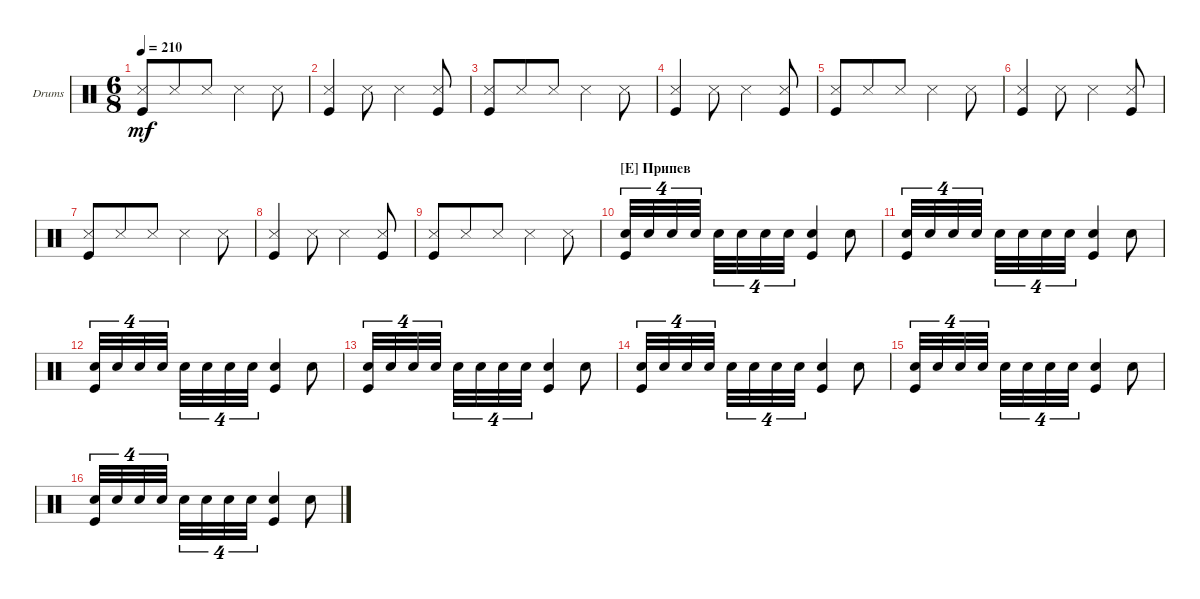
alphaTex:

\defaultSystemsLayout 4
\bracketExtendMode nobrackets
\firstSystemTrackNameOrientation horizontal
\otherSystemsTrackNameOrientation horizontal
\track ("Drumkit" "Drums") {instrument percussion}
\staff {score}
\articulation defaults
\ts (6 8)
\tempo 210
\clef neutral
\scale
0.333333
\ks c
("Kick (hit)" "Snare (side stick) 3").8{dy mf} "Snare (side stick) 3".8 "Snare (side stick) 3".8 "Snare (side stick) 3".4 "Snare (side stick) 3".8 |
\scale
0.333333 ("Kick (hit)" "Snare (side stick) 3").4 "Snare (side stick) 3".8 "Snare (side stick) 3".4 ("Kick (hit)" "Snare (side stick) 3").8 |
\scale
0.333333 ("Kick (hit)" "Snare (side stick) 3").8 "Snare (side stick) 3".8 "Snare (side stick) 3".8 "Snare (side stick) 3".4 "Snare (side stick) 3".8 |
\scale
0.333333 ("Kick (hit)" "Snare (side stick) 3").4 "Snare (side stick) 3".8 "Snare (side stick) 3".4 ("Kick (hit)" "Snare (side stick) 3").8 |
\scale
0.333333 ("Kick (hit)" "Snare (side stick) 3").8 "Snare (side stick) 3".8 "Snare (side stick) 3".8 "Snare (side stick) 3".4 "Snare (side stick) 3".8 |
\scale
0.333333 ("Kick (hit)" "Snare (side stick) 3").4 "Snare (side stick) 3".8 "Snare (side stick) 3".4 ("Kick (hit)" "Snare (side stick) 3").8 |
\scale
0.333333 ("Kick (hit)" "Snare (side stick) 3").8 "Snare (side stick) 3".8 "Snare (side stick) 3".8 "Snare (side stick) 3".4 "Snare (side stick) 3".8 |
\scale
0.333333 ("Kick (hit)" "Snare (side stick) 3").4 "Snare (side stick) 3".8 "Snare (side stick) 3".4 ("Kick (hit)" "Snare (side stick) 3").8 |
\scale
0.333333 ("Kick (hit)" "Snare (side stick) 3").8 "Snare (side stick) 3".8 "Snare (side stick) 3".8 "Snare (side stick) 3".4 "Snare (side stick) 3".8 |
\section ("E" "Припев")
\scale
0.333333 ("Kick (hit)" "Snare (hit) 2").32{tu (4 6)} "Snare (hit) 2".32{tu (4 6)} "Snare (hit) 2".32{tu (4 6)} "Snare (hit) 2".32{tu (4 6)} "Snare (hit) 2".32{tu (4 6)} "Snare (hit) 2".32{tu (4 6)} "Snare (hit) 2".32{tu (4 6)} "Snare (hit) 2".32{tu (4 6)} ("Kick (hit)" "Snare (hit) 2").4 "Snare (hit) 2".8 |
\scale
0.333333 ("Kick (hit)" "Snare (hit) 2").32{tu (4 6)} "Snare (hit) 2".32{tu (4 6)} "Snare (hit) 2".32{tu (4 6)} "Snare (hit) 2".32{tu (4 6)} "Snare (hit) 2".32{tu (4 6)} "Snare (hit) 2".32{tu (4 6)} "Snare (hit) 2".32{tu (4 6)} "Snare (hit) 2".32{tu (4 6)} ("Kick (hit)" "Snare (hit) 2").4 "Snare (hit) 2".8 |
\scale
0.333333 ("Kick (hit)" "Snare (hit) 2").32{tu (4 6)} "Snare (hit) 2".32{tu (4 6)} "Snare (hit) 2".32{tu (4 6)} "Snare (hit) 2".32{tu (4 6)} "Snare (hit) 2".32{tu (4 6)} "Snare (hit) 2".32{tu (4 6)} "Snare (hit) 2".32{tu (4 6)} "Snare (hit) 2".32{tu (4 6)} ("Kick (hit)" "Snare (hit) 2").4 "Snare (hit) 2".8 |
\scale
0.333333 ("Kick (hit)" "Snare (hit) 2").32{tu (4 6)} "Snare (hit) 2".32{tu (4 6)} "Snare (hit) 2".32{tu (4 6)} "Snare (hit) 2".32{tu (4 6)} "Snare (hit) 2".32{tu (4 6)} "Snare (hit) 2".32{tu (4 6)} "Snare (hit) 2".32{tu (4 6)} "Snare (hit) 2".32{tu (4 6)} ("Kick (hit)" "Snare (hit) 2").4 "Snare (hit) 2".8 |
\scale
0.333333 ("Kick (hit)" "Snare (hit) 2").32{tu (4 6)} "Snare (hit) 2".32{tu (4 6)} "Snare (hit) 2".32{tu (4 6)} "Snare (hit) 2".32{tu (4 6)} "Snare (hit) 2".32{tu (4 6)} "Snare (hit) 2".32{tu (4 6)} "Snare (hit) 2".32{tu (4 6)} "Snare (hit) 2".32{tu (4 6)} ("Kick (hit)" "Snare (hit) 2").4 "Snare (hit) 2".8 |
\scale
0.333333 ("Kick (hit)" "Snare (hit) 2").32{tu (4 6)} "Snare (hit) 2".32{tu (4 6)} "Snare (hit) 2".32{tu (4 6)} "Snare (hit) 2".32{tu (4 6)} "Snare (hit) 2".32{tu (4 6)} "Snare (hit) 2".32{tu (4 6)} "Snare (hit) 2".32{tu (4 6)} "Snare (hit) 2".32{tu (4 6)} ("Kick (hit)" "Snare (hit) 2").4 "Snare (hit) 2".8 |
\scale
0.333333 ("Kick (hit)" "Snare (hit) 2").32{tu (4 6)} "Snare (hit) 2".32{tu (4 6)} "Snare (hit) 2".32{tu (4 6)} "Snare (hit) 2".32{tu (4 6)} "Snare (hit) 2".32{tu (4 6)} "Snare (hit) 2".32{tu (4 6)} "Snare (hit) 2".32{tu (4 6)} "Snare (hit) 2".32{tu (4 6)} ("Kick (hit)" "Snare (hit) 2").4 "Snare (hit) 2".8
